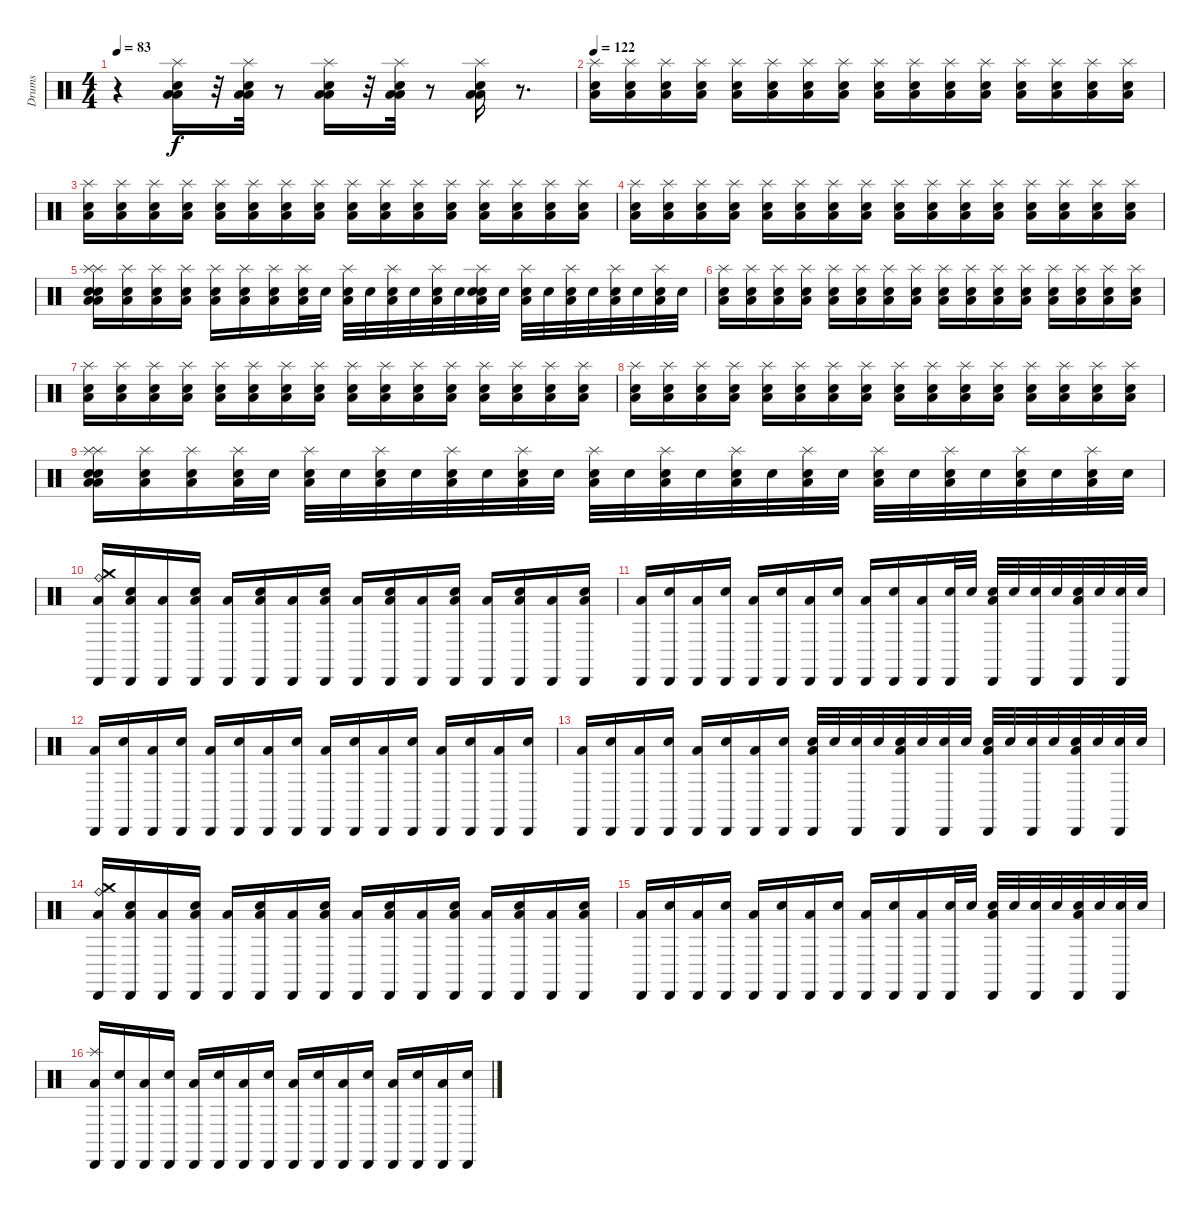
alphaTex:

\track ("Drums" "Drums") {instrument percussion}
\staff {score}
\articulation defaults
\ts (4 4)
\tempo 83
\clef neutral
\ks c
r.4{dy f} ("Snare (hit) 2" "Low Tom (hit)" "Splash (hit)" "Low Floor Tom (hit)").16 r.32 ("Snare (hit) 2" "Low Floor Tom (hit)" "Splash (hit)" "Low Tom (hit)").32 r.8 ("Snare (hit) 2" "Low Tom (hit)" "Splash (hit)" "Low Floor Tom (hit)").16 r.32 ("Low Floor Tom (hit)" "Snare (hit) 2" "Splash (hit)" "Low Tom (hit)").32 r.8 ("Snare (hit) 2" "Low Tom (hit)" "Splash (hit)" "Low Floor Tom (hit)").16 r.8{d} |
\tempo 122
("Low Tom (hit)" "Splash (hit)" "Electric Snare (hit)").16 ("Low Tom (hit)" "Splash (hit)" "Electric Snare (hit)").16 ("Low Tom (hit)" "Splash (hit)" "Electric Snare (hit)").16 ("Low Tom (hit)" "Splash (hit)" "Electric Snare (hit)").16 ("Low Tom (hit)" "Splash (hit)" "Electric Snare (hit)").16 ("Low Tom (hit)" "Splash (hit)" "Electric Snare (hit)").16 ("Low Tom (hit)" "Splash (hit)" "Electric Snare (hit)").16 ("Low Tom (hit)" "Splash (hit)" "Electric Snare (hit)").16 ("Low Tom (hit)" "Splash (hit)" "Electric Snare (hit)").16 ("Low Tom (hit)" "Splash (hit)" "Electric Snare (hit)").16 ("Low Tom (hit)" "Splash (hit)" "Electric Snare (hit)").16 ("Low Tom (hit)" "Splash (hit)" "Electric Snare (hit)").16 ("Low Tom (hit)" "Splash (hit)" "Electric Snare (hit)").16 ("Low Tom (hit)" "Splash (hit)" "Electric Snare (hit)").16 ("Low Tom (hit)" "Splash (hit)" "Electric Snare (hit)").16 ("Low Tom (hit)" "Splash (hit)" "Electric Snare (hit)").16 |
("Low Tom (hit)" "Splash (hit)" "Electric Snare (hit)").16 ("Low Tom (hit)" "Splash (hit)" "Electric Snare (hit)").16 ("Low Tom (hit)" "Splash (hit)" "Electric Snare (hit)").16 ("Low Tom (hit)" "Splash (hit)" "Electric Snare (hit)").16 ("Low Tom (hit)" "Splash (hit)" "Electric Snare (hit)").16 ("Low Tom (hit)" "Splash (hit)" "Electric Snare (hit)").16 ("Low Tom (hit)" "Splash (hit)" "Electric Snare (hit)").16 ("Low Tom (hit)" "Splash (hit)" "Electric Snare (hit)").16 ("Low Tom (hit)" "Splash (hit)" "Electric Snare (hit)").16 ("Low Tom (hit)" "Splash (hit)" "Electric Snare (hit)").16 ("Low Tom (hit)" "Splash (hit)" "Electric Snare (hit)").16 ("Low Tom (hit)" "Splash (hit)" "Electric Snare (hit)").16 ("Low Tom (hit)" "Splash (hit)" "Electric Snare (hit)").16 ("Low Tom (hit)" "Splash (hit)" "Electric Snare (hit)").16 ("Low Tom (hit)" "Splash (hit)" "Electric Snare (hit)").16 ("Low Tom (hit)" "Splash (hit)" "Electric Snare (hit)").16 |
("Low Tom (hit)" "Splash (hit)" "Electric Snare (hit)").16 ("Low Tom (hit)" "Splash (hit)" "Electric Snare (hit)").16 ("Low Tom (hit)" "Splash (hit)" "Electric Snare (hit)").16 ("Low Tom (hit)" "Splash (hit)" "Electric Snare (hit)").16 ("Low Tom (hit)" "Splash (hit)" "Electric Snare (hit)").16 ("Low Tom (hit)" "Splash (hit)" "Electric Snare (hit)").16 ("Low Tom (hit)" "Splash (hit)" "Electric Snare (hit)").16 ("Low Tom (hit)" "Splash (hit)" "Electric Snare (hit)").16 ("Low Tom (hit)" "Splash (hit)" "Electric Snare (hit)").16 ("Low Tom (hit)" "Splash (hit)" "Electric Snare (hit)").16 ("Low Tom (hit)" "Splash (hit)" "Electric Snare (hit)").16 ("Low Tom (hit)" "Splash (hit)" "Electric Snare (hit)").16 ("Low Tom (hit)" "Splash (hit)" "Electric Snare (hit)").16 ("Low Tom (hit)" "Splash (hit)" "Electric Snare (hit)").16 ("Low Tom (hit)" "Splash (hit)" "Electric Snare (hit)").16 ("Low Tom (hit)" "Splash (hit)" "Electric Snare (hit)").16 |
("Low Tom (hit)" "Splash (hit)" "Electric Snare (hit)" "Low Tom (hit)" "Splash (hit)" "Electric Snare (hit)").16 ("Low Tom (hit)" "Splash (hit)" "Electric Snare (hit)").16 ("Low Tom (hit)" "Splash (hit)" "Electric Snare (hit)").16 ("Low Tom (hit)" "Splash (hit)" "Electric Snare (hit)").16 ("Low Tom (hit)" "Splash (hit)" "Electric Snare (hit)").16 ("Low Tom (hit)" "Splash (hit)" "Electric Snare (hit)").16 ("Low Tom (hit)" "Splash (hit)" "Electric Snare (hit)").16 ("Low Tom (hit)" "Splash (hit)" "Electric Snare (hit)").32 "Electric Snare (hit)".32 ("Low Tom (hit)" "Splash (hit)" "Electric Snare (hit)").32 "Electric Snare (hit)".32 ("Low Tom (hit)" "Splash (hit)" "Electric Snare (hit)").32 "Electric Snare (hit)".32 ("Low Tom (hit)" "Splash (hit)" "Electric Snare (hit)").32 "Electric Snare (hit)".32 ("Electric Snare (hit)" "Low Tom (hit)" "Splash (hit)" "Electric Snare (hit)").32 "Electric Snare (hit)".32 ("Low Tom (hit)" "Splash (hit)" "Electric Snare (hit)").32 "Electric Snare (hit)".32 ("Low Tom (hit)" "Splash (hit)" "Electric Snare (hit)").32 "Electric Snare (hit)".32 ("Low Tom (hit)" "Splash (hit)" "Electric Snare (hit)").32 "Electric Snare (hit)".32 ("Low Tom (hit)" "Splash (hit)" "Electric Snare (hit)").32 "Electric Snare (hit)".32 |
("Low Tom (hit)" "Splash (hit)" "Electric Snare (hit)").16 ("Low Tom (hit)" "Splash (hit)" "Electric Snare (hit)").16 ("Low Tom (hit)" "Splash (hit)" "Electric Snare (hit)").16 ("Low Tom (hit)" "Splash (hit)" "Electric Snare (hit)").16 ("Low Tom (hit)" "Splash (hit)" "Electric Snare (hit)").16 ("Low Tom (hit)" "Splash (hit)" "Electric Snare (hit)").16 ("Low Tom (hit)" "Splash (hit)" "Electric Snare (hit)").16 ("Low Tom (hit)" "Splash (hit)" "Electric Snare (hit)").16 ("Low Tom (hit)" "Splash (hit)" "Electric Snare (hit)").16 ("Low Tom (hit)" "Splash (hit)" "Electric Snare (hit)").16 ("Low Tom (hit)" "Splash (hit)" "Electric Snare (hit)").16 ("Low Tom (hit)" "Splash (hit)" "Electric Snare (hit)").16 ("Low Tom (hit)" "Splash (hit)" "Electric Snare (hit)").16 ("Low Tom (hit)" "Splash (hit)" "Electric Snare (hit)").16 ("Low Tom (hit)" "Splash (hit)" "Electric Snare (hit)").16 ("Low Tom (hit)" "Splash (hit)" "Electric Snare (hit)").16 |
("Low Tom (hit)" "Splash (hit)" "Electric Snare (hit)").16 ("Low Tom (hit)" "Splash (hit)" "Electric Snare (hit)").16 ("Low Tom (hit)" "Splash (hit)" "Electric Snare (hit)").16 ("Low Tom (hit)" "Splash (hit)" "Electric Snare (hit)").16 ("Low Tom (hit)" "Splash (hit)" "Electric Snare (hit)").16 ("Low Tom (hit)" "Splash (hit)" "Electric Snare (hit)").16 ("Low Tom (hit)" "Splash (hit)" "Electric Snare (hit)").16 ("Low Tom (hit)" "Splash (hit)" "Electric Snare (hit)").16 ("Low Tom (hit)" "Splash (hit)" "Electric Snare (hit)").16 ("Low Tom (hit)" "Splash (hit)" "Electric Snare (hit)").16 ("Low Tom (hit)" "Splash (hit)" "Electric Snare (hit)").16 ("Low Tom (hit)" "Splash (hit)" "Electric Snare (hit)").16 ("Low Tom (hit)" "Splash (hit)" "Electric Snare (hit)").16 ("Low Tom (hit)" "Splash (hit)" "Electric Snare (hit)").16 ("Low Tom (hit)" "Splash (hit)" "Electric Snare (hit)").16 ("Low Tom (hit)" "Splash (hit)" "Electric Snare (hit)").16 |
("Low Tom (hit)" "Splash (hit)" "Electric Snare (hit)").16 ("Low Tom (hit)" "Splash (hit)" "Electric Snare (hit)").16 ("Low Tom (hit)" "Splash (hit)" "Electric Snare (hit)").16 ("Low Tom (hit)" "Splash (hit)" "Electric Snare (hit)").16 ("Low Tom (hit)" "Splash (hit)" "Electric Snare (hit)").16 ("Low Tom (hit)" "Splash (hit)" "Electric Snare (hit)").16 ("Low Tom (hit)" "Splash (hit)" "Electric Snare (hit)").16 ("Low Tom (hit)" "Splash (hit)" "Electric Snare (hit)").16 ("Low Tom (hit)" "Splash (hit)" "Electric Snare (hit)").16 ("Low Tom (hit)" "Splash (hit)" "Electric Snare (hit)").16 ("Low Tom (hit)" "Splash (hit)" "Electric Snare (hit)").16 ("Low Tom (hit)" "Splash (hit)" "Electric Snare (hit)").16 ("Low Tom (hit)" "Splash (hit)" "Electric Snare (hit)").16 ("Low Tom (hit)" "Splash (hit)" "Electric Snare (hit)").16 ("Low Tom (hit)" "Splash (hit)" "Electric Snare (hit)").16 ("Low Tom (hit)" "Splash (hit)" "Electric Snare (hit)").16 |
("Low Tom (hit)" "Splash (hit)" "Electric Snare (hit)" "Low Tom (hit)" "Splash (hit)" "Electric Snare (hit)").16 ("Low Tom (hit)" "Splash (hit)" "Electric Snare (hit)").16 ("Low Tom (hit)" "Splash (hit)" "Electric Snare (hit)").16 ("Low Tom (hit)" "Splash (hit)" "Electric Snare (hit)").32 "Electric Snare (hit)".32 ("Low Tom (hit)" "Splash (hit)" "Electric Snare (hit)").32 "Electric Snare (hit)".32 ("Low Tom (hit)" "Splash (hit)" "Electric Snare (hit)").32 "Electric Snare (hit)".32 ("Low Tom (hit)" "Splash (hit)" "Electric Snare (hit)").32 "Electric Snare (hit)".32 ("Low Tom (hit)" "Splash (hit)" "Electric Snare (hit)").32 "Electric Snare (hit)".32 ("Low Tom (hit)" "Splash (hit)" "Electric Snare (hit)").32 "Electric Snare (hit)".32 ("Low Tom (hit)" "Splash (hit)" "Electric Snare (hit)").32 "Snare (hit) 2".32 ("Low Tom (hit)" "Splash (hit)" "Electric Snare (hit)").32 "Snare (hit) 2".32 ("Low Tom (hit)" "Splash (hit)" "Electric Snare (hit)").32 "Electric Snare (hit)".32 ("Low Tom (hit)" "Splash (hit)" "Electric Snare (hit)").32 "Electric Snare (hit)".32 ("Low Tom (hit)" "Splash (hit)" "Electric Snare (hit)").32 "Electric Snare (hit)".32 ("Low Tom (hit)" "Splash (hit)" "Electric Snare (hit)").32 "Snare (hit) 2".32 ("Low Tom (hit)" "Splash (hit)" "Electric Snare (hit)").32 "Electric Snare (hit)".32 |
("Crash medium (hit)" "Ride (bell)" "Cabasa (hit)" "Low Tom (hit)").16 ("Cabasa (hit)" "Low Tom (hit)" "Electric Snare (hit)").16 ("Cabasa (hit)" "Low Tom (hit)").16 ("Cabasa (hit)" "Low Tom (hit)" "Electric Snare (hit)").16 ("Cabasa (hit)" "Low Tom (hit)").16 ("Cabasa (hit)" "Low Tom (hit)" "Electric Snare (hit)").16 ("Cabasa (hit)" "Low Tom (hit)").16 ("Cabasa (hit)" "Low Tom (hit)" "Electric Snare (hit)").16 ("Cabasa (hit)" "Low Tom (hit)").16 ("Cabasa (hit)" "Low Tom (hit)" "Electric Snare (hit)").16 ("Cabasa (hit)" "Low Tom (hit)").16 ("Cabasa (hit)" "Low Tom (hit)" "Electric Snare (hit)").16 ("Cabasa (hit)" "Low Tom (hit)").16 ("Cabasa (hit)" "Low Tom (hit)" "Electric Snare (hit)").16 ("Cabasa (hit)" "Low Tom (hit)").16 ("Cabasa (hit)" "Low Tom (hit)" "Electric Snare (hit)").16 |
("Cabasa (hit)" "Low Tom (hit)").16 ("Cabasa (hit)" "Electric Snare (hit)").16 ("Cabasa (hit)" "Low Tom (hit)").16 ("Cabasa (hit)" "Electric Snare (hit)").16 ("Cabasa (hit)" "Low Tom (hit)").16 ("Cabasa (hit)" "Electric Snare (hit)").16 ("Cabasa (hit)" "Low Tom (hit)").16 ("Cabasa (hit)" "Electric Snare (hit)").16 ("Cabasa (hit)" "Low Tom (hit)").16 ("Cabasa (hit)" "Electric Snare (hit)").16 ("Cabasa (hit)" "Low Tom (hit)").16 ("Cabasa (hit)" "Electric Snare (hit)").32 "Electric Snare (hit)".32 ("Electric Snare (hit)" "Cabasa (hit)" "Low Tom (hit)").32 "Electric Snare (hit)".32 ("Cabasa (hit)" "Electric Snare (hit)").32 "Electric Snare (hit)".32 ("Snare (hit) 2" "Cabasa (hit)" "Low Tom (hit)").32 "Electric Snare (hit)".32 ("Cabasa (hit)" "Electric Snare (hit)").32 "Electric Snare (hit)".32 |
("Cabasa (hit)" "Low Tom (hit)").16 ("Cabasa (hit)" "Electric Snare (hit)").16 ("Cabasa (hit)" "Low Tom (hit)").16 ("Cabasa (hit)" "Electric Snare (hit)").16 ("Cabasa (hit)" "Low Tom (hit)").16 ("Cabasa (hit)" "Electric Snare (hit)").16 ("Cabasa (hit)" "Low Tom (hit)").16 ("Cabasa (hit)" "Electric Snare (hit)").16 ("Cabasa (hit)" "Low Tom (hit)").16 ("Cabasa (hit)" "Electric Snare (hit)").16 ("Cabasa (hit)" "Low Tom (hit)").16 ("Cabasa (hit)" "Electric Snare (hit)").16 ("Cabasa (hit)" "Low Tom (hit)").16 ("Cabasa (hit)" "Electric Snare (hit)").16 ("Cabasa (hit)" "Low Tom (hit)").16 ("Cabasa (hit)" "Electric Snare (hit)").16 |
("Cabasa (hit)" "Low Tom (hit)").16 ("Cabasa (hit)" "Electric Snare (hit)").16 ("Cabasa (hit)" "Low Tom (hit)").16 ("Cabasa (hit)" "Electric Snare (hit)").16 ("Cabasa (hit)" "Low Tom (hit)").16 ("Cabasa (hit)" "Electric Snare (hit)").16 ("Cabasa (hit)" "Low Tom (hit)").16 ("Cabasa (hit)" "Electric Snare (hit)").16 ("Electric Snare (hit)" "Cabasa (hit)" "Low Tom (hit)").32 "Electric Snare (hit)".32 ("Cabasa (hit)" "Electric Snare (hit)").32 "Electric Snare (hit)".32 ("Electric Snare (hit)" "Cabasa (hit)" "Low Tom (hit)").32 "Electric Snare (hit)".32 ("Cabasa (hit)" "Electric Snare (hit)").32 "Electric Snare (hit)".32 ("Electric Snare (hit)" "Cabasa (hit)" "Low Tom (hit)").32 "Electric Snare (hit)".32 ("Cabasa (hit)" "Electric Snare (hit)").32 "Electric Snare (hit)".32 ("Electric Snare (hit)" "Cabasa (hit)" "Low Tom (hit)").32 "Electric Snare (hit)".32 ("Cabasa (hit)" "Electric Snare (hit)").32 "Electric Snare (hit)".32 |
("Crash medium (hit)" "Ride (bell)" "Cabasa (hit)" "Low Tom (hit)").16 ("Cabasa (hit)" "Low Tom (hit)" "Electric Snare (hit)").16 ("Cabasa (hit)" "Low Tom (hit)").16 ("Cabasa (hit)" "Low Tom (hit)" "Electric Snare (hit)").16 ("Cabasa (hit)" "Low Tom (hit)").16 ("Cabasa (hit)" "Low Tom (hit)" "Electric Snare (hit)").16 ("Cabasa (hit)" "Low Tom (hit)").16 ("Cabasa (hit)" "Low Tom (hit)" "Electric Snare (hit)").16 ("Cabasa (hit)" "Low Tom (hit)").16 ("Cabasa (hit)" "Low Tom (hit)" "Electric Snare (hit)").16 ("Cabasa (hit)" "Low Tom (hit)").16 ("Cabasa (hit)" "Low Tom (hit)" "Electric Snare (hit)").16 ("Cabasa (hit)" "Low Tom (hit)").16 ("Cabasa (hit)" "Low Tom (hit)" "Electric Snare (hit)").16 ("Cabasa (hit)" "Low Tom (hit)").16 ("Cabasa (hit)" "Low Tom (hit)" "Electric Snare (hit)").16 |
("Cabasa (hit)" "Low Tom (hit)").16 ("Cabasa (hit)" "Electric Snare (hit)").16 ("Cabasa (hit)" "Low Tom (hit)").16 ("Cabasa (hit)" "Electric Snare (hit)").16 ("Cabasa (hit)" "Low Tom (hit)").16 ("Cabasa (hit)" "Electric Snare (hit)").16 ("Cabasa (hit)" "Low Tom (hit)").16 ("Cabasa (hit)" "Electric Snare (hit)").16 ("Cabasa (hit)" "Low Tom (hit)").16 ("Cabasa (hit)" "Electric Snare (hit)").16 ("Cabasa (hit)" "Low Tom (hit)").16 ("Cabasa (hit)" "Electric Snare (hit)").32 "Electric Snare (hit)".32 ("Electric Snare (hit)" "Cabasa (hit)" "Low Tom (hit)").32 "Electric Snare (hit)".32 ("Cabasa (hit)" "Electric Snare (hit)").32 "Electric Snare (hit)".32 ("Snare (hit) 2" "Cabasa (hit)" "Low Tom (hit)").32 "Electric Snare (hit)".32 ("Cabasa (hit)" "Electric Snare (hit)").32 "Electric Snare (hit)".32 |
("Splash (hit)" "Cabasa (hit)" "Low Tom (hit)").16 ("Cabasa (hit)" "Electric Snare (hit)").16 ("Cabasa (hit)" "Low Tom (hit)").16 ("Cabasa (hit)" "Electric Snare (hit)").16 ("Cabasa (hit)" "Low Tom (hit)").16 ("Cabasa (hit)" "Electric Snare (hit)").16 ("Cabasa (hit)" "Low Tom (hit)").16 ("Cabasa (hit)" "Electric Snare (hit)").16 ("Cabasa (hit)" "Low Tom (hit)").16 ("Cabasa (hit)" "Electric Snare (hit)").16 ("Cabasa (hit)" "Low Tom (hit)").16 ("Cabasa (hit)" "Electric Snare (hit)").16 ("Cabasa (hit)" "Low Tom (hit)").16 ("Cabasa (hit)" "Electric Snare (hit)").16 ("Cabasa (hit)" "Low Tom (hit)").16 ("Cabasa (hit)" "Electric Snare (hit)").16
